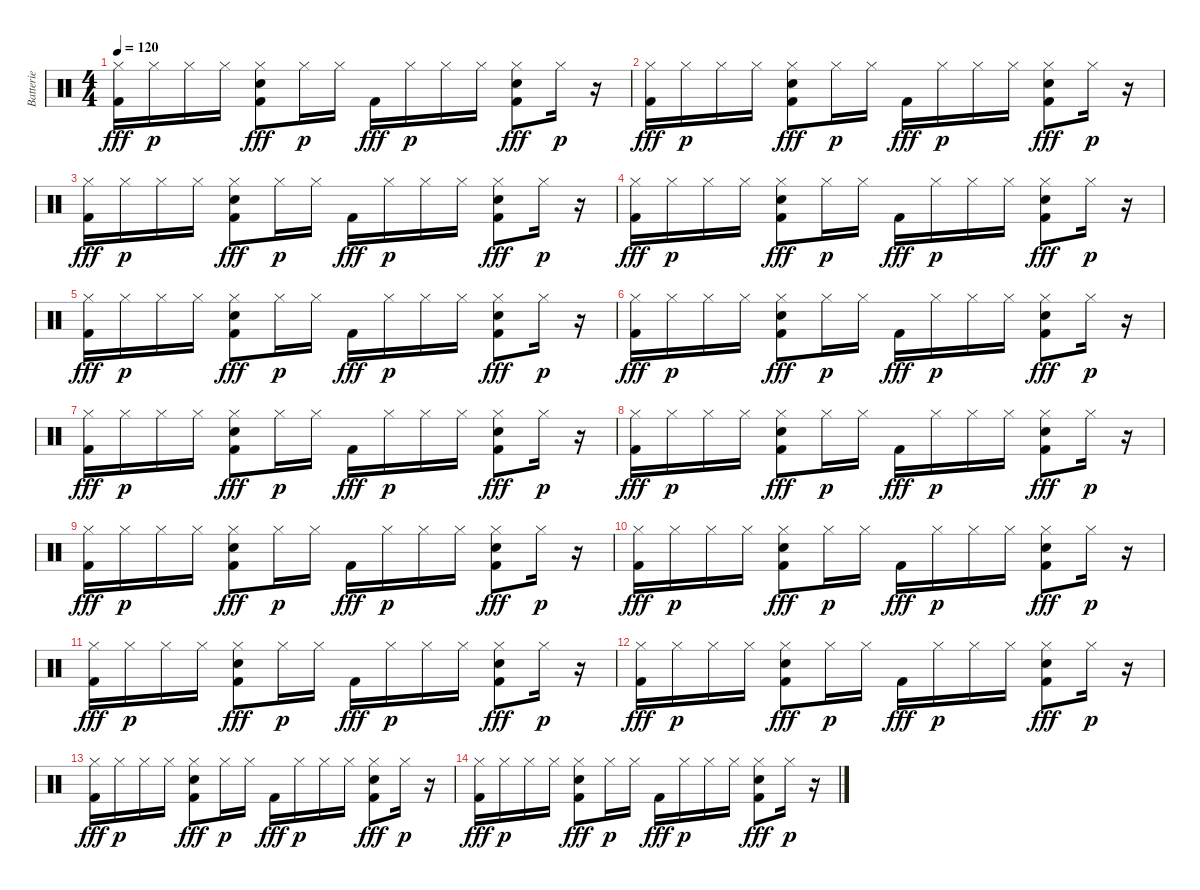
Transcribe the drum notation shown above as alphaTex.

\track ("Batterie" "Batterie") {instrument percussion}
\staff {score}
\articulation defaults
\ts (4 4)
\tempo 120
\clef neutral
\ks c
("Hi-Hat (closed)" "Kick (hit) 2").16{dy fff} "Hi-Hat (closed)".16{dy p} "Hi-Hat (closed)".16 "Hi-Hat (closed)".16 ("Hi-Hat (closed)" "Hand Clap (hit)" "Kick (hit) 2").8{dy fff} "Hi-Hat (closed)".16{dy p} "Hi-Hat (closed)".16 "Kick (hit) 2".16{dy fff} "Hi-Hat (closed)".16{dy p} "Hi-Hat (closed)".16 "Hi-Hat (closed)".16 ("Hi-Hat (closed)" "Hand Clap (hit)" "Kick (hit) 2").8{dy fff} "Hi-Hat (closed)".16{dy p} r.16 |
("Hi-Hat (closed)" "Kick (hit) 2").16{dy fff} "Hi-Hat (closed)".16{dy p} "Hi-Hat (closed)".16 "Hi-Hat (closed)".16 ("Hi-Hat (closed)" "Hand Clap (hit)" "Kick (hit) 2").8{dy fff} "Hi-Hat (closed)".16{dy p} "Hi-Hat (closed)".16 "Kick (hit) 2".16{dy fff} "Hi-Hat (closed)".16{dy p} "Hi-Hat (closed)".16 "Hi-Hat (closed)".16 ("Hi-Hat (closed)" "Hand Clap (hit)" "Kick (hit) 2").8{dy fff} "Hi-Hat (closed)".16{dy p} r.16 |
("Hi-Hat (closed)" "Kick (hit) 2").16{dy fff} "Hi-Hat (closed)".16{dy p} "Hi-Hat (closed)".16 "Hi-Hat (closed)".16 ("Hi-Hat (closed)" "Hand Clap (hit)" "Kick (hit) 2").8{dy fff} "Hi-Hat (closed)".16{dy p} "Hi-Hat (closed)".16 "Kick (hit) 2".16{dy fff} "Hi-Hat (closed)".16{dy p} "Hi-Hat (closed)".16 "Hi-Hat (closed)".16 ("Hi-Hat (closed)" "Hand Clap (hit)" "Kick (hit) 2").8{dy fff} "Hi-Hat (closed)".16{dy p} r.16 |
("Hi-Hat (closed)" "Kick (hit) 2").16{dy fff} "Hi-Hat (closed)".16{dy p} "Hi-Hat (closed)".16 "Hi-Hat (closed)".16 ("Hi-Hat (closed)" "Hand Clap (hit)" "Kick (hit) 2").8{dy fff} "Hi-Hat (closed)".16{dy p} "Hi-Hat (closed)".16 "Kick (hit) 2".16{dy fff} "Hi-Hat (closed)".16{dy p} "Hi-Hat (closed)".16 "Hi-Hat (closed)".16 ("Hi-Hat (closed)" "Hand Clap (hit)" "Kick (hit) 2").8{dy fff} "Hi-Hat (closed)".16{dy p} r.16 |
("Hi-Hat (closed)" "Kick (hit) 2").16{dy fff} "Hi-Hat (closed)".16{dy p} "Hi-Hat (closed)".16 "Hi-Hat (closed)".16 ("Hi-Hat (closed)" "Hand Clap (hit)" "Kick (hit) 2").8{dy fff} "Hi-Hat (closed)".16{dy p} "Hi-Hat (closed)".16 "Kick (hit) 2".16{dy fff} "Hi-Hat (closed)".16{dy p} "Hi-Hat (closed)".16 "Hi-Hat (closed)".16 ("Hi-Hat (closed)" "Hand Clap (hit)" "Kick (hit) 2").8{dy fff} "Hi-Hat (closed)".16{dy p} r.16 |
("Hi-Hat (closed)" "Kick (hit) 2").16{dy fff} "Hi-Hat (closed)".16{dy p} "Hi-Hat (closed)".16 "Hi-Hat (closed)".16 ("Hi-Hat (closed)" "Hand Clap (hit)" "Kick (hit) 2").8{dy fff} "Hi-Hat (closed)".16{dy p} "Hi-Hat (closed)".16 "Kick (hit) 2".16{dy fff} "Hi-Hat (closed)".16{dy p} "Hi-Hat (closed)".16 "Hi-Hat (closed)".16 ("Hi-Hat (closed)" "Hand Clap (hit)" "Kick (hit) 2").8{dy fff} "Hi-Hat (closed)".16{dy p} r.16 |
("Hi-Hat (closed)" "Kick (hit) 2").16{dy fff} "Hi-Hat (closed)".16{dy p} "Hi-Hat (closed)".16 "Hi-Hat (closed)".16 ("Hi-Hat (closed)" "Hand Clap (hit)" "Kick (hit) 2").8{dy fff} "Hi-Hat (closed)".16{dy p} "Hi-Hat (closed)".16 "Kick (hit) 2".16{dy fff} "Hi-Hat (closed)".16{dy p} "Hi-Hat (closed)".16 "Hi-Hat (closed)".16 ("Hi-Hat (closed)" "Hand Clap (hit)" "Kick (hit) 2").8{dy fff} "Hi-Hat (closed)".16{dy p} r.16 |
("Hi-Hat (closed)" "Kick (hit) 2").16{dy fff} "Hi-Hat (closed)".16{dy p} "Hi-Hat (closed)".16 "Hi-Hat (closed)".16 ("Hi-Hat (closed)" "Hand Clap (hit)" "Kick (hit) 2").8{dy fff} "Hi-Hat (closed)".16{dy p} "Hi-Hat (closed)".16 "Kick (hit) 2".16{dy fff} "Hi-Hat (closed)".16{dy p} "Hi-Hat (closed)".16 "Hi-Hat (closed)".16 ("Hi-Hat (closed)" "Hand Clap (hit)" "Kick (hit) 2").8{dy fff} "Hi-Hat (closed)".16{dy p} r.16 |
("Hi-Hat (closed)" "Kick (hit) 2").16{dy fff} "Hi-Hat (closed)".16{dy p} "Hi-Hat (closed)".16 "Hi-Hat (closed)".16 ("Hi-Hat (closed)" "Hand Clap (hit)" "Kick (hit) 2").8{dy fff} "Hi-Hat (closed)".16{dy p} "Hi-Hat (closed)".16 "Kick (hit) 2".16{dy fff} "Hi-Hat (closed)".16{dy p} "Hi-Hat (closed)".16 "Hi-Hat (closed)".16 ("Hi-Hat (closed)" "Hand Clap (hit)" "Kick (hit) 2").8{dy fff} "Hi-Hat (closed)".16{dy p} r.16 |
("Hi-Hat (closed)" "Kick (hit) 2").16{dy fff} "Hi-Hat (closed)".16{dy p} "Hi-Hat (closed)".16 "Hi-Hat (closed)".16 ("Hi-Hat (closed)" "Hand Clap (hit)" "Kick (hit) 2").8{dy fff} "Hi-Hat (closed)".16{dy p} "Hi-Hat (closed)".16 "Kick (hit) 2".16{dy fff} "Hi-Hat (closed)".16{dy p} "Hi-Hat (closed)".16 "Hi-Hat (closed)".16 ("Hi-Hat (closed)" "Hand Clap (hit)" "Kick (hit) 2").8{dy fff} "Hi-Hat (closed)".16{dy p} r.16 |
("Hi-Hat (closed)" "Kick (hit) 2").16{dy fff} "Hi-Hat (closed)".16{dy p} "Hi-Hat (closed)".16 "Hi-Hat (closed)".16 ("Hi-Hat (closed)" "Hand Clap (hit)" "Kick (hit) 2").8{dy fff} "Hi-Hat (closed)".16{dy p} "Hi-Hat (closed)".16 "Kick (hit) 2".16{dy fff} "Hi-Hat (closed)".16{dy p} "Hi-Hat (closed)".16 "Hi-Hat (closed)".16 ("Hi-Hat (closed)" "Hand Clap (hit)" "Kick (hit) 2").8{dy fff} "Hi-Hat (closed)".16{dy p} r.16 |
("Hi-Hat (closed)" "Kick (hit) 2").16{dy fff} "Hi-Hat (closed)".16{dy p} "Hi-Hat (closed)".16 "Hi-Hat (closed)".16 ("Hi-Hat (closed)" "Hand Clap (hit)" "Kick (hit) 2").8{dy fff} "Hi-Hat (closed)".16{dy p} "Hi-Hat (closed)".16 "Kick (hit) 2".16{dy fff} "Hi-Hat (closed)".16{dy p} "Hi-Hat (closed)".16 "Hi-Hat (closed)".16 ("Hi-Hat (closed)" "Hand Clap (hit)" "Kick (hit) 2").8{dy fff} "Hi-Hat (closed)".16{dy p} r.16 |
("Hi-Hat (closed)" "Kick (hit) 2").16{dy fff} "Hi-Hat (closed)".16{dy p} "Hi-Hat (closed)".16 "Hi-Hat (closed)".16 ("Hi-Hat (closed)" "Hand Clap (hit)" "Kick (hit) 2").8{dy fff} "Hi-Hat (closed)".16{dy p} "Hi-Hat (closed)".16 "Kick (hit) 2".16{dy fff} "Hi-Hat (closed)".16{dy p} "Hi-Hat (closed)".16 "Hi-Hat (closed)".16 ("Hi-Hat (closed)" "Hand Clap (hit)" "Kick (hit) 2").8{dy fff} "Hi-Hat (closed)".16{dy p} r.16 |
("Hi-Hat (closed)" "Kick (hit) 2").16{dy fff} "Hi-Hat (closed)".16{dy p} "Hi-Hat (closed)".16 "Hi-Hat (closed)".16 ("Hi-Hat (closed)" "Hand Clap (hit)" "Kick (hit) 2").8{dy fff} "Hi-Hat (closed)".16{dy p} "Hi-Hat (closed)".16 "Kick (hit) 2".16{dy fff} "Hi-Hat (closed)".16{dy p} "Hi-Hat (closed)".16 "Hi-Hat (closed)".16 ("Hi-Hat (closed)" "Hand Clap (hit)" "Kick (hit) 2").8{dy fff} "Hi-Hat (closed)".16{dy p} r.16
